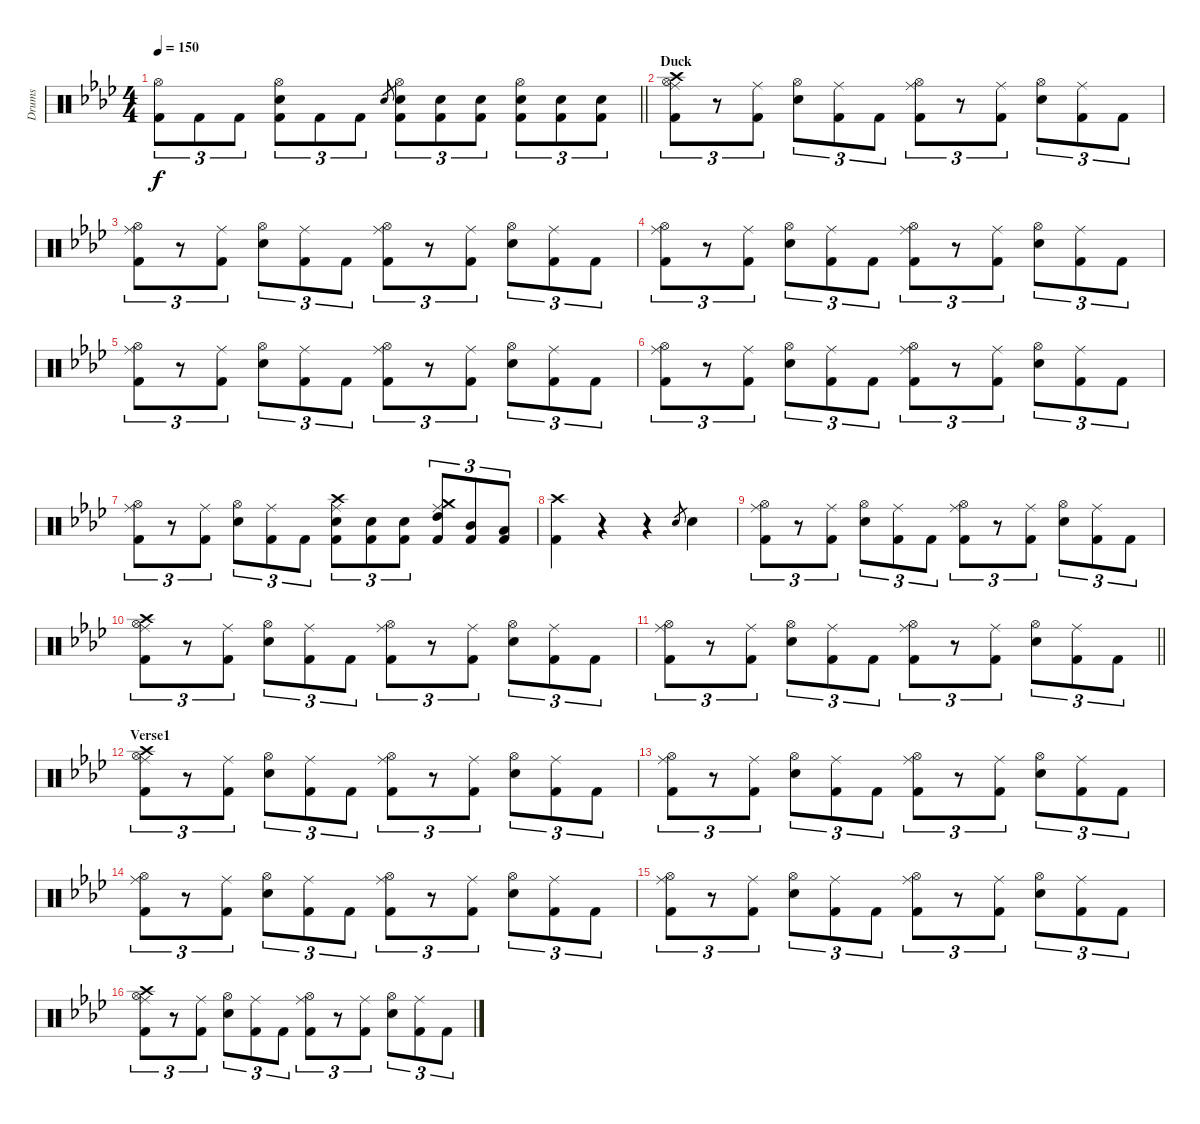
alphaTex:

\track ("Drums" "Drums") {instrument percussion}
\staff {score}
\articulation defaults
\ts (4 4)
\tempo 150
\clef neutral
\barLineRight lightlight
\ks fminor
("Hi-Hat (open)" "Kick (hit) 2").8{tu (3 2) dy f} "Kick (hit) 2".8{tu (3 2)} "Kick (hit) 2".8{tu (3 2)} ("Hi-Hat (open)" "Snare (hit) 2" "Kick (hit) 2").8{tu (3 2)} "Kick (hit) 2".8{tu (3 2)} "Kick (hit) 2".8{tu (3 2)} "Snare (hit) 2".8{gr} ("Hi-Hat (open)" "Snare (hit) 2" "Kick (hit) 2").8{tu (3 2)} ("Snare (hit) 2" "Kick (hit) 2").8{tu (3 2)} ("Snare (hit) 2" "Kick (hit) 2").8{tu (3 2)} ("Hi-Hat (open)" "Snare (hit) 2" "Kick (hit) 2").8{tu (3 2)} ("Snare (hit) 2" "Kick (hit) 2").8{tu (3 2)} ("Snare (hit) 2" "Kick (hit) 2").8{tu (3 2)} |
\section ("" "Duck")
("Crash high (hit)" "Hi-Hat (open)" "Ride (middle)" "Kick (hit) 2").8{tu (3 2)} r.8{tu (3 2)} ("Ride (middle)" "Kick (hit) 2").8{tu (3 2)} ("Hi-Hat (open)" "Snare (hit) 2").8{tu (3 2)} ("Ride (middle)" "Kick (hit) 2").8{tu (3 2)} "Kick (hit) 2".8{tu (3 2)} ("Hi-Hat (open)" "Ride (middle)" "Kick (hit) 2").8{tu (3 2)} r.8{tu (3 2)} ("Ride (middle)" "Kick (hit) 2").8{tu (3 2)} ("Hi-Hat (open)" "Snare (hit) 2").8{tu (3 2)} ("Ride (middle)" "Kick (hit) 2").8{tu (3 2)} "Kick (hit) 2".8{tu (3 2)} |
("Hi-Hat (open)" "Ride (middle)" "Kick (hit) 2").8{tu (3 2)} r.8{tu (3 2)} ("Ride (middle)" "Kick (hit) 2").8{tu (3 2)} ("Hi-Hat (open)" "Snare (hit) 2").8{tu (3 2)} ("Ride (middle)" "Kick (hit) 2").8{tu (3 2)} "Kick (hit) 2".8{tu (3 2)} ("Hi-Hat (open)" "Ride (middle)" "Kick (hit) 2").8{tu (3 2)} r.8{tu (3 2)} ("Ride (middle)" "Kick (hit) 2").8{tu (3 2)} ("Hi-Hat (open)" "Snare (hit) 2").8{tu (3 2)} ("Ride (middle)" "Kick (hit) 2").8{tu (3 2)} "Kick (hit) 2".8{tu (3 2)} |
("Hi-Hat (open)" "Ride (middle)" "Kick (hit) 2").8{tu (3 2)} r.8{tu (3 2)} ("Ride (middle)" "Kick (hit) 2").8{tu (3 2)} ("Hi-Hat (open)" "Snare (hit) 2").8{tu (3 2)} ("Ride (middle)" "Kick (hit) 2").8{tu (3 2)} "Kick (hit) 2".8{tu (3 2)} ("Hi-Hat (open)" "Ride (middle)" "Kick (hit) 2").8{tu (3 2)} r.8{tu (3 2)} ("Ride (middle)" "Kick (hit) 2").8{tu (3 2)} ("Hi-Hat (open)" "Snare (hit) 2").8{tu (3 2)} ("Ride (middle)" "Kick (hit) 2").8{tu (3 2)} "Kick (hit) 2".8{tu (3 2)} |
("Hi-Hat (open)" "Ride (middle)" "Kick (hit) 2").8{tu (3 2)} r.8{tu (3 2)} ("Ride (middle)" "Kick (hit) 2").8{tu (3 2)} ("Hi-Hat (open)" "Snare (hit) 2").8{tu (3 2)} ("Ride (middle)" "Kick (hit) 2").8{tu (3 2)} "Kick (hit) 2".8{tu (3 2)} ("Hi-Hat (open)" "Ride (middle)" "Kick (hit) 2").8{tu (3 2)} r.8{tu (3 2)} ("Ride (middle)" "Kick (hit) 2").8{tu (3 2)} ("Hi-Hat (open)" "Snare (hit) 2").8{tu (3 2)} ("Ride (middle)" "Kick (hit) 2").8{tu (3 2)} "Kick (hit) 2".8{tu (3 2)} |
("Hi-Hat (open)" "Ride (middle)" "Kick (hit) 2").8{tu (3 2)} r.8{tu (3 2)} ("Ride (middle)" "Kick (hit) 2").8{tu (3 2)} ("Hi-Hat (open)" "Snare (hit) 2").8{tu (3 2)} ("Ride (middle)" "Kick (hit) 2").8{tu (3 2)} "Kick (hit) 2".8{tu (3 2)} ("Hi-Hat (open)" "Ride (middle)" "Kick (hit) 2").8{tu (3 2)} r.8{tu (3 2)} ("Ride (middle)" "Kick (hit) 2").8{tu (3 2)} ("Hi-Hat (open)" "Snare (hit) 2").8{tu (3 2)} ("Ride (middle)" "Kick (hit) 2").8{tu (3 2)} "Kick (hit) 2".8{tu (3 2)} |
("Hi-Hat (open)" "Ride (middle)" "Kick (hit) 2").8{tu (3 2)} r.8{tu (3 2)} ("Ride (middle)" "Kick (hit) 2").8{tu (3 2)} ("Hi-Hat (open)" "Snare (hit) 2").8{tu (3 2)} ("Ride (middle)" "Kick (hit) 2").8{tu (3 2)} "Kick (hit) 2".8{tu (3 2)} ("Ride (middle)" "Crash high (hit)" "Snare (hit) 2" "Kick (hit) 2").8{tu (3 2)} ("Snare (hit) 2" "Kick (hit) 2").8{tu (3 2)} ("Snare (hit) 2" "Kick (hit) 2").8{tu (3 2)} ("Ride (middle)" "Crash medium (hit)" "High Tom (hit)" "Kick (hit) 2").8{tu (3 2)} ("Mid Tom (hit)" "Kick (hit) 2").8{tu (3 2)} ("Low Tom (hit)" "Kick (hit) 2").8{tu (3 2)} |
("Crash high (hit)" "Kick (hit) 2").4 r.4 r.4 "Snare (hit) 2".8{gr} "Snare (hit) 2".4 |
("Hi-Hat (open)" "Ride (middle)" "Kick (hit) 2").8{tu (3 2)} r.8{tu (3 2)} ("Ride (middle)" "Kick (hit) 2").8{tu (3 2)} ("Hi-Hat (open)" "Snare (hit) 2").8{tu (3 2)} ("Ride (middle)" "Kick (hit) 2").8{tu (3 2)} "Kick (hit) 2".8{tu (3 2)} ("Hi-Hat (open)" "Ride (middle)" "Kick (hit) 2").8{tu (3 2)} r.8{tu (3 2)} ("Ride (middle)" "Kick (hit) 2").8{tu (3 2)} ("Hi-Hat (open)" "Snare (hit) 2").8{tu (3 2)} ("Ride (middle)" "Kick (hit) 2").8{tu (3 2)} "Kick (hit) 2".8{tu (3 2)} |
("Crash high (hit)" "Hi-Hat (open)" "Ride (middle)" "Kick (hit) 2").8{tu (3 2)} r.8{tu (3 2)} ("Ride (middle)" "Kick (hit) 2").8{tu (3 2)} ("Hi-Hat (open)" "Snare (hit) 2").8{tu (3 2)} ("Ride (middle)" "Kick (hit) 2").8{tu (3 2)} "Kick (hit) 2".8{tu (3 2)} ("Hi-Hat (open)" "Ride (middle)" "Kick (hit) 2").8{tu (3 2)} r.8{tu (3 2)} ("Ride (middle)" "Kick (hit) 2").8{tu (3 2)} ("Hi-Hat (open)" "Snare (hit) 2").8{tu (3 2)} ("Ride (middle)" "Kick (hit) 2").8{tu (3 2)} "Kick (hit) 2".8{tu (3 2)} |
\barLineRight lightlight
("Hi-Hat (open)" "Ride (middle)" "Kick (hit) 2").8{tu (3 2)} r.8{tu (3 2)} ("Ride (middle)" "Kick (hit) 2").8{tu (3 2)} ("Hi-Hat (open)" "Snare (hit) 2").8{tu (3 2)} ("Ride (middle)" "Kick (hit) 2").8{tu (3 2)} "Kick (hit) 2".8{tu (3 2)} ("Hi-Hat (open)" "Ride (middle)" "Kick (hit) 2").8{tu (3 2)} r.8{tu (3 2)} ("Ride (middle)" "Kick (hit) 2").8{tu (3 2)} ("Hi-Hat (open)" "Snare (hit) 2").8{tu (3 2)} ("Ride (middle)" "Kick (hit) 2").8{tu (3 2)} "Kick (hit) 2".8{tu (3 2)} |
\section ("" "Verse1")
("Crash high (hit)" "Hi-Hat (open)" "Ride (middle)" "Kick (hit) 2").8{tu (3 2)} r.8{tu (3 2)} ("Ride (middle)" "Kick (hit) 2").8{tu (3 2)} ("Hi-Hat (open)" "Snare (hit) 2").8{tu (3 2)} ("Ride (middle)" "Kick (hit) 2").8{tu (3 2)} "Kick (hit) 2".8{tu (3 2)} ("Hi-Hat (open)" "Ride (middle)" "Kick (hit) 2").8{tu (3 2)} r.8{tu (3 2)} ("Ride (middle)" "Kick (hit) 2").8{tu (3 2)} ("Hi-Hat (open)" "Snare (hit) 2").8{tu (3 2)} ("Ride (middle)" "Kick (hit) 2").8{tu (3 2)} "Kick (hit) 2".8{tu (3 2)} |
("Hi-Hat (open)" "Ride (middle)" "Kick (hit) 2").8{tu (3 2)} r.8{tu (3 2)} ("Ride (middle)" "Kick (hit) 2").8{tu (3 2)} ("Hi-Hat (open)" "Snare (hit) 2").8{tu (3 2)} ("Ride (middle)" "Kick (hit) 2").8{tu (3 2)} "Kick (hit) 2".8{tu (3 2)} ("Hi-Hat (open)" "Ride (middle)" "Kick (hit) 2").8{tu (3 2)} r.8{tu (3 2)} ("Ride (middle)" "Kick (hit) 2").8{tu (3 2)} ("Hi-Hat (open)" "Snare (hit) 2").8{tu (3 2)} ("Ride (middle)" "Kick (hit) 2").8{tu (3 2)} "Kick (hit) 2".8{tu (3 2)} |
("Hi-Hat (open)" "Ride (middle)" "Kick (hit) 2").8{tu (3 2)} r.8{tu (3 2)} ("Ride (middle)" "Kick (hit) 2").8{tu (3 2)} ("Hi-Hat (open)" "Snare (hit) 2").8{tu (3 2)} ("Ride (middle)" "Kick (hit) 2").8{tu (3 2)} "Kick (hit) 2".8{tu (3 2)} ("Hi-Hat (open)" "Ride (middle)" "Kick (hit) 2").8{tu (3 2)} r.8{tu (3 2)} ("Ride (middle)" "Kick (hit) 2").8{tu (3 2)} ("Hi-Hat (open)" "Snare (hit) 2").8{tu (3 2)} ("Ride (middle)" "Kick (hit) 2").8{tu (3 2)} "Kick (hit) 2".8{tu (3 2)} |
("Hi-Hat (open)" "Ride (middle)" "Kick (hit) 2").8{tu (3 2)} r.8{tu (3 2)} ("Ride (middle)" "Kick (hit) 2").8{tu (3 2)} ("Hi-Hat (open)" "Snare (hit) 2").8{tu (3 2)} ("Ride (middle)" "Kick (hit) 2").8{tu (3 2)} "Kick (hit) 2".8{tu (3 2)} ("Hi-Hat (open)" "Ride (middle)" "Kick (hit) 2").8{tu (3 2)} r.8{tu (3 2)} ("Ride (middle)" "Kick (hit) 2").8{tu (3 2)} ("Hi-Hat (open)" "Snare (hit) 2").8{tu (3 2)} ("Ride (middle)" "Kick (hit) 2").8{tu (3 2)} "Kick (hit) 2".8{tu (3 2)} |
("Crash high (hit)" "Hi-Hat (open)" "Ride (middle)" "Kick (hit) 2").8{tu (3 2)} r.8{tu (3 2)} ("Ride (middle)" "Kick (hit) 2").8{tu (3 2)} ("Hi-Hat (open)" "Snare (hit) 2").8{tu (3 2)} ("Ride (middle)" "Kick (hit) 2").8{tu (3 2)} "Kick (hit) 2".8{tu (3 2)} ("Hi-Hat (open)" "Ride (middle)" "Kick (hit) 2").8{tu (3 2)} r.8{tu (3 2)} ("Ride (middle)" "Kick (hit) 2").8{tu (3 2)} ("Hi-Hat (open)" "Snare (hit) 2").8{tu (3 2)} ("Ride (middle)" "Kick (hit) 2").8{tu (3 2)} "Kick (hit) 2".8{tu (3 2)}
